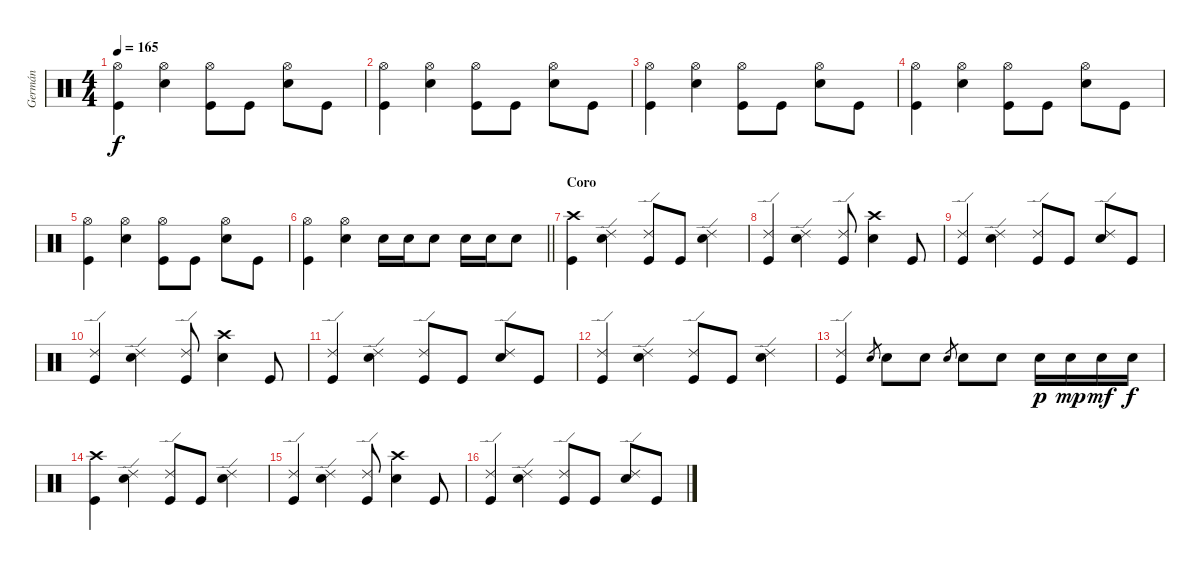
\track ("Germán" "Germán") {instrument percussion}
\staff {score}
\articulation defaults
\ts (4 4)
\tempo 165
\clef neutral
\ks c
("Hi-Hat (open)" "Kick (hit)").4{dy f} ("Hi-Hat (open)" "Electric Snare (hit)").4 ("Hi-Hat (open)" "Kick (hit)").8 "Kick (hit)".8 ("Hi-Hat (open)" "Electric Snare (hit)").8 "Kick (hit)".8 |
("Hi-Hat (open)" "Kick (hit)").4 ("Hi-Hat (open)" "Electric Snare (hit)").4 ("Hi-Hat (open)" "Kick (hit)").8 "Kick (hit)".8 ("Hi-Hat (open)" "Electric Snare (hit)").8 "Kick (hit)".8 |
("Hi-Hat (open)" "Kick (hit)").4 ("Hi-Hat (open)" "Electric Snare (hit)").4 ("Hi-Hat (open)" "Kick (hit)").8 "Kick (hit)".8 ("Hi-Hat (open)" "Electric Snare (hit)").8 "Kick (hit)".8 |
("Hi-Hat (open)" "Kick (hit)").4 ("Hi-Hat (open)" "Electric Snare (hit)").4 ("Hi-Hat (open)" "Kick (hit)").8 "Kick (hit)".8 ("Hi-Hat (open)" "Electric Snare (hit)").8 "Kick (hit)".8 |
("Hi-Hat (open)" "Kick (hit)").4 ("Hi-Hat (open)" "Electric Snare (hit)").4 ("Hi-Hat (open)" "Kick (hit)").8 "Kick (hit)".8 ("Hi-Hat (open)" "Electric Snare (hit)").8 "Kick (hit)".8 |
\barLineRight lightlight
("Hi-Hat (open)" "Kick (hit)").4 ("Hi-Hat (open)" "Electric Snare (hit)").4 "Electric Snare (hit)".16 "Electric Snare (hit)".16 "Electric Snare (hit)".8 "Electric Snare (hit)".16 "Electric Snare (hit)".16 "Electric Snare (hit)".8 |
\section ("" "Coro")
("Crash high (hit)" "Kick (hit)").4 ("Ride (edge) 2" "Electric Snare (hit)").4 ("Ride (edge) 2" "Kick (hit)").8 "Kick (hit)".8 ("Ride (edge) 2" "Electric Snare (hit)").4 |
("Ride (edge) 2" "Kick (hit)").4 ("Ride (edge) 2" "Electric Snare (hit)").4 ("Ride (edge) 2" "Kick (hit)").8 ("Crash high (hit)" "Electric Snare (hit)").4 "Kick (hit)".8 |
("Ride (edge) 2" "Kick (hit)").4 ("Ride (edge) 2" "Electric Snare (hit)").4 ("Ride (edge) 2" "Kick (hit)").8 "Kick (hit)".8 ("Ride (edge) 2" "Electric Snare (hit)").8 "Kick (hit)".8 |
("Ride (edge) 2" "Kick (hit)").4 ("Ride (edge) 2" "Electric Snare (hit)").4 ("Ride (edge) 2" "Kick (hit)").8 ("Crash high (hit)" "Electric Snare (hit)").4 "Kick (hit)".8 |
("Ride (edge) 2" "Kick (hit)").4 ("Ride (edge) 2" "Electric Snare (hit)").4 ("Ride (edge) 2" "Kick (hit)").8 "Kick (hit)".8 ("Ride (edge) 2" "Electric Snare (hit)").8 "Kick (hit)".8 |
("Ride (edge) 2" "Kick (hit)").4 ("Ride (edge) 2" "Electric Snare (hit)").4 ("Ride (edge) 2" "Kick (hit)").8 "Kick (hit)".8 ("Ride (edge) 2" "Electric Snare (hit)").4 |
("Ride (edge) 2" "Kick (hit)").4 "Electric Snare (hit)".8{gr} "Electric Snare (hit)".8 "Electric Snare (hit)".8 "Electric Snare (hit)".8{gr} "Electric Snare (hit)".8 "Electric Snare (hit)".8 "Electric Snare (hit)".16{dy p} "Electric Snare (hit)".16{dy mp} "Electric Snare (hit)".16{dy mf} "Electric Snare (hit)".16{dy f} |
("Crash high (hit)" "Kick (hit)").4 ("Ride (edge) 2" "Electric Snare (hit)").4 ("Ride (edge) 2" "Kick (hit)").8 "Kick (hit)".8 ("Ride (edge) 2" "Electric Snare (hit)").4 |
("Ride (edge) 2" "Kick (hit)").4 ("Ride (edge) 2" "Electric Snare (hit)").4 ("Ride (edge) 2" "Kick (hit)").8 ("Crash high (hit)" "Electric Snare (hit)").4 "Kick (hit)".8 |
("Ride (edge) 2" "Kick (hit)").4 ("Ride (edge) 2" "Electric Snare (hit)").4 ("Ride (edge) 2" "Kick (hit)").8 "Kick (hit)".8 ("Ride (edge) 2" "Electric Snare (hit)").8 "Kick (hit)".8
